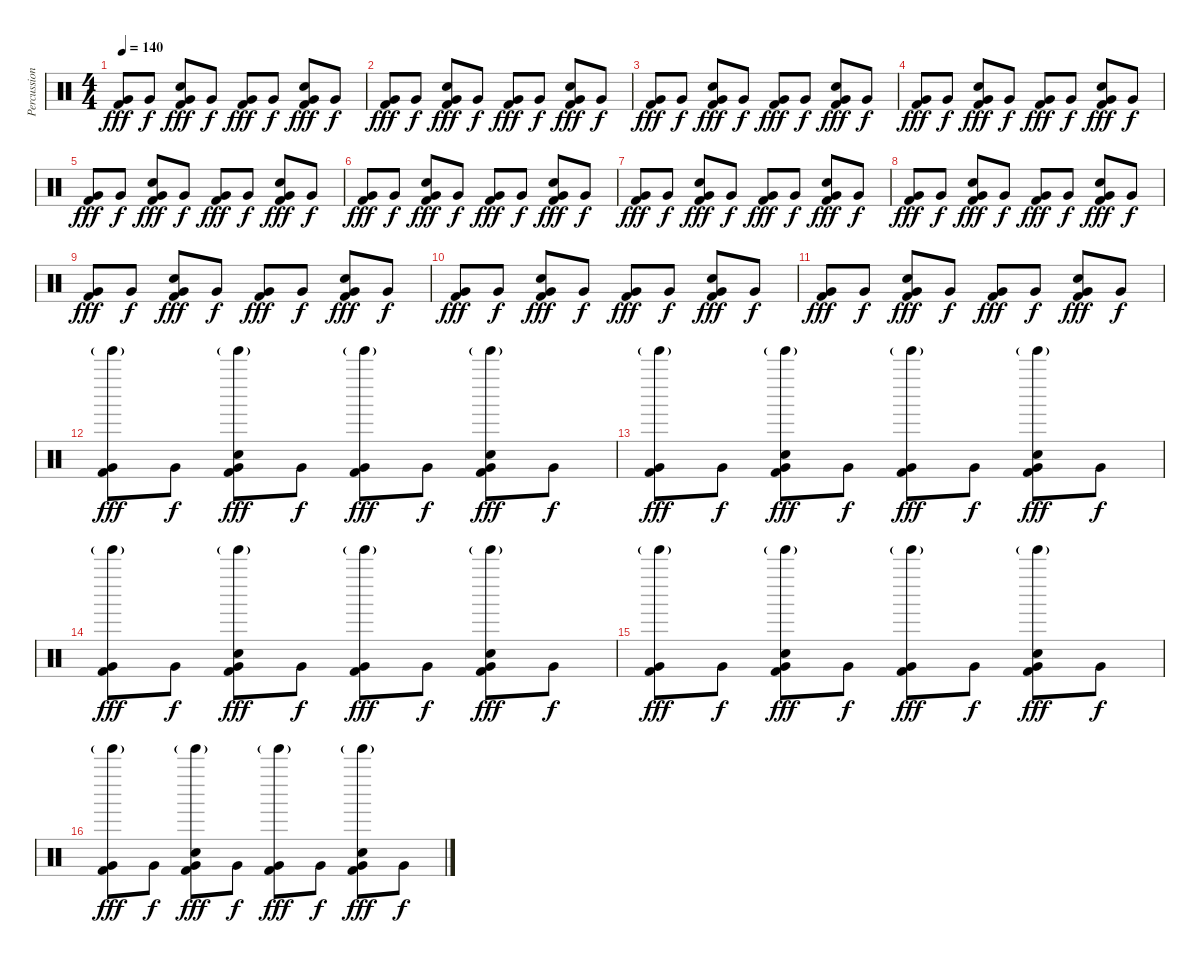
\track ("Percussion" "Percussion") {instrument percussion}
\staff {score}
\articulation defaults
\ts (4 4)
\tempo 140
\clef neutral
\ks c
("Very Low Tom (hit)" "Kick (hit) 2").8{dy fff} "Very Low Tom (hit)".8{dy f} ("Very Low Tom (hit)" "Snare (hit) 2" "Kick (hit) 2").8{dy fff} "Very Low Tom (hit)".8{dy f} ("Very Low Tom (hit)" "Kick (hit) 2").8{dy fff} "Very Low Tom (hit)".8{dy f} ("Very Low Tom (hit)" "Snare (hit) 2" "Kick (hit) 2").8{dy fff} "Very Low Tom (hit)".8{dy f} |
("Very Low Tom (hit)" "Kick (hit) 2").8{dy fff} "Very Low Tom (hit)".8{dy f} ("Very Low Tom (hit)" "Snare (hit) 2" "Kick (hit) 2").8{dy fff} "Very Low Tom (hit)".8{dy f} ("Very Low Tom (hit)" "Kick (hit) 2").8{dy fff} "Very Low Tom (hit)".8{dy f} ("Very Low Tom (hit)" "Snare (hit) 2" "Kick (hit) 2").8{dy fff} "Very Low Tom (hit)".8{dy f} |
("Very Low Tom (hit)" "Kick (hit) 2").8{dy fff} "Very Low Tom (hit)".8{dy f} ("Very Low Tom (hit)" "Snare (hit) 2" "Kick (hit) 2").8{dy fff} "Very Low Tom (hit)".8{dy f} ("Very Low Tom (hit)" "Kick (hit) 2").8{dy fff} "Very Low Tom (hit)".8{dy f} ("Very Low Tom (hit)" "Snare (hit) 2" "Kick (hit) 2").8{dy fff} "Very Low Tom (hit)".8{dy f} |
("Very Low Tom (hit)" "Kick (hit) 2").8{dy fff} "Very Low Tom (hit)".8{dy f} ("Very Low Tom (hit)" "Snare (hit) 2" "Kick (hit) 2").8{dy fff} "Very Low Tom (hit)".8{dy f} ("Very Low Tom (hit)" "Kick (hit) 2").8{dy fff} "Very Low Tom (hit)".8{dy f} ("Very Low Tom (hit)" "Snare (hit) 2" "Kick (hit) 2").8{dy fff} "Very Low Tom (hit)".8{dy f} |
("Very Low Tom (hit)" "Kick (hit) 2").8{dy fff} "Very Low Tom (hit)".8{dy f} ("Very Low Tom (hit)" "Snare (hit) 2" "Kick (hit) 2").8{dy fff} "Very Low Tom (hit)".8{dy f} ("Very Low Tom (hit)" "Kick (hit) 2").8{dy fff} "Very Low Tom (hit)".8{dy f} ("Very Low Tom (hit)" "Snare (hit) 2" "Kick (hit) 2").8{dy fff} "Very Low Tom (hit)".8{dy f} |
("Very Low Tom (hit)" "Kick (hit) 2").8{dy fff} "Very Low Tom (hit)".8{dy f} ("Very Low Tom (hit)" "Snare (hit) 2" "Kick (hit) 2").8{dy fff} "Very Low Tom (hit)".8{dy f} ("Very Low Tom (hit)" "Kick (hit) 2").8{dy fff} "Very Low Tom (hit)".8{dy f} ("Very Low Tom (hit)" "Snare (hit) 2" "Kick (hit) 2").8{dy fff} "Very Low Tom (hit)".8{dy f} |
("Very Low Tom (hit)" "Kick (hit) 2").8{dy fff} "Very Low Tom (hit)".8{dy f} ("Very Low Tom (hit)" "Snare (hit) 2" "Kick (hit) 2").8{dy fff} "Very Low Tom (hit)".8{dy f} ("Very Low Tom (hit)" "Kick (hit) 2").8{dy fff} "Very Low Tom (hit)".8{dy f} ("Very Low Tom (hit)" "Snare (hit) 2" "Kick (hit) 2").8{dy fff} "Very Low Tom (hit)".8{dy f} |
("Very Low Tom (hit)" "Kick (hit) 2").8{dy fff} "Very Low Tom (hit)".8{dy f} ("Very Low Tom (hit)" "Snare (hit) 2" "Kick (hit) 2").8{dy fff} "Very Low Tom (hit)".8{dy f} ("Very Low Tom (hit)" "Kick (hit) 2").8{dy fff} "Very Low Tom (hit)".8{dy f} ("Very Low Tom (hit)" "Snare (hit) 2" "Kick (hit) 2").8{dy fff} "Very Low Tom (hit)".8{dy f} |
("Very Low Tom (hit)" "Kick (hit) 2").8{dy fff} "Very Low Tom (hit)".8{dy f} ("Very Low Tom (hit)" "Snare (hit) 2" "Kick (hit) 2").8{dy fff} "Very Low Tom (hit)".8{dy f} ("Very Low Tom (hit)" "Kick (hit) 2").8{dy fff} "Very Low Tom (hit)".8{dy f} ("Very Low Tom (hit)" "Snare (hit) 2" "Kick (hit) 2").8{dy fff} "Very Low Tom (hit)".8{dy f} |
("Very Low Tom (hit)" "Kick (hit) 2").8{dy fff} "Very Low Tom (hit)".8{dy f} ("Very Low Tom (hit)" "Snare (hit) 2" "Kick (hit) 2").8{dy fff} "Very Low Tom (hit)".8{dy f} ("Very Low Tom (hit)" "Kick (hit) 2").8{dy fff} "Very Low Tom (hit)".8{dy f} ("Very Low Tom (hit)" "Snare (hit) 2" "Kick (hit) 2").8{dy fff} "Very Low Tom (hit)".8{dy f} |
("Very Low Tom (hit)" "Kick (hit) 2").8{dy fff} "Very Low Tom (hit)".8{dy f} ("Very Low Tom (hit)" "Snare (hit) 2" "Kick (hit) 2").8{dy fff} "Very Low Tom (hit)".8{dy f} ("Very Low Tom (hit)" "Kick (hit) 2").8{dy fff} "Very Low Tom (hit)".8{dy f} ("Very Low Tom (hit)" "Snare (hit) 2" "Kick (hit) 2").8{dy fff} "Very Low Tom (hit)".8{dy f} |
("Tinkle Bell (hit)"{g} "Very Low Tom (hit)" "Kick (hit) 2").8{dy fff} "Very Low Tom (hit)".8{dy f} ("Tinkle Bell (hit)"{g} "Very Low Tom (hit)" "Snare (hit) 2" "Kick (hit) 2").8{dy fff} "Very Low Tom (hit)".8{dy f} ("Tinkle Bell (hit)"{g} "Very Low Tom (hit)" "Kick (hit) 2").8{dy fff} "Very Low Tom (hit)".8{dy f} ("Tinkle Bell (hit)"{g} "Very Low Tom (hit)" "Snare (hit) 2" "Kick (hit) 2").8{dy fff} "Very Low Tom (hit)".8{dy f} |
("Tinkle Bell (hit)"{g} "Very Low Tom (hit)" "Kick (hit) 2").8{dy fff} "Very Low Tom (hit)".8{dy f} ("Tinkle Bell (hit)"{g} "Very Low Tom (hit)" "Snare (hit) 2" "Kick (hit) 2").8{dy fff} "Very Low Tom (hit)".8{dy f} ("Tinkle Bell (hit)"{g} "Very Low Tom (hit)" "Kick (hit) 2").8{dy fff} "Very Low Tom (hit)".8{dy f} ("Tinkle Bell (hit)"{g} "Very Low Tom (hit)" "Snare (hit) 2" "Kick (hit) 2").8{dy fff} "Very Low Tom (hit)".8{dy f} |
("Tinkle Bell (hit)"{g} "Very Low Tom (hit)" "Kick (hit) 2").8{dy fff} "Very Low Tom (hit)".8{dy f} ("Tinkle Bell (hit)"{g} "Very Low Tom (hit)" "Snare (hit) 2" "Kick (hit) 2").8{dy fff} "Very Low Tom (hit)".8{dy f} ("Tinkle Bell (hit)"{g} "Very Low Tom (hit)" "Kick (hit) 2").8{dy fff} "Very Low Tom (hit)".8{dy f} ("Tinkle Bell (hit)"{g} "Very Low Tom (hit)" "Snare (hit) 2" "Kick (hit) 2").8{dy fff} "Very Low Tom (hit)".8{dy f} |
("Tinkle Bell (hit)"{g} "Very Low Tom (hit)" "Kick (hit) 2").8{dy fff} "Very Low Tom (hit)".8{dy f} ("Tinkle Bell (hit)"{g} "Very Low Tom (hit)" "Snare (hit) 2" "Kick (hit) 2").8{dy fff} "Very Low Tom (hit)".8{dy f} ("Tinkle Bell (hit)"{g} "Very Low Tom (hit)" "Kick (hit) 2").8{dy fff} "Very Low Tom (hit)".8{dy f} ("Tinkle Bell (hit)"{g} "Very Low Tom (hit)" "Snare (hit) 2" "Kick (hit) 2").8{dy fff} "Very Low Tom (hit)".8{dy f} |
("Tinkle Bell (hit)"{g} "Very Low Tom (hit)" "Kick (hit) 2").8{dy fff} "Very Low Tom (hit)".8{dy f} ("Tinkle Bell (hit)"{g} "Very Low Tom (hit)" "Snare (hit) 2" "Kick (hit) 2").8{dy fff} "Very Low Tom (hit)".8{dy f} ("Tinkle Bell (hit)"{g} "Very Low Tom (hit)" "Kick (hit) 2").8{dy fff} "Very Low Tom (hit)".8{dy f} ("Tinkle Bell (hit)"{g} "Very Low Tom (hit)" "Snare (hit) 2" "Kick (hit) 2").8{dy fff} "Very Low Tom (hit)".8{dy f}
